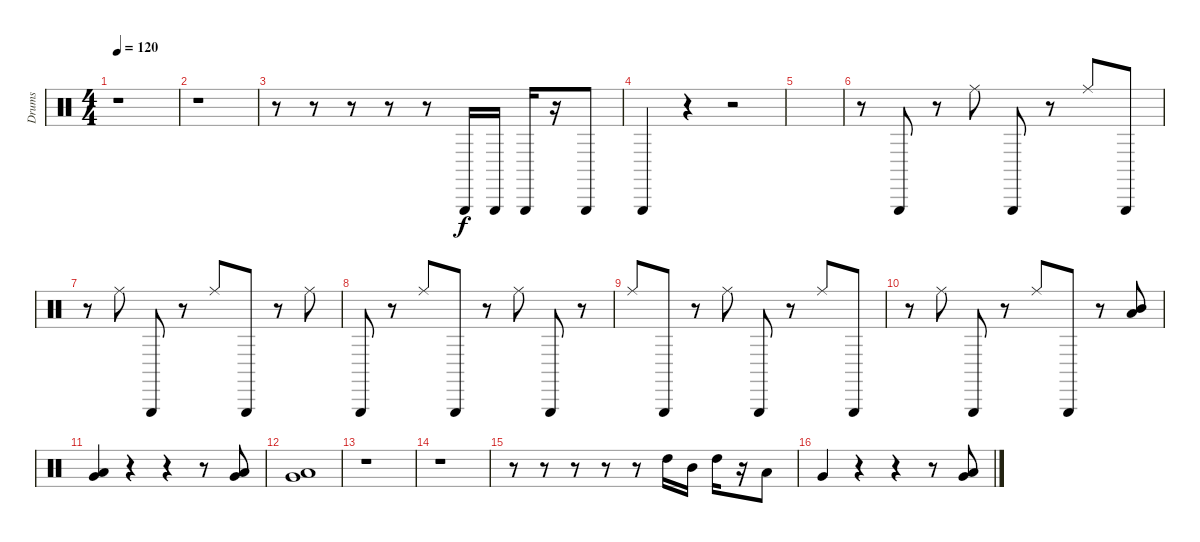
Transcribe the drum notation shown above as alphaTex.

\track ("Drums" "Drums") {instrument percussion}
\staff {score}
\articulation defaults
\ts (4 4)
\tempo 120
\clef neutral
\ks c
r.1{dy f} |
r.1 |
r.8 r.8 r.8 r.8 r.8 "Triangle (hit)".16 "Triangle (hit)".16 "Triangle (hit)".16 r.16 "Triangle (hit)".8 |
"Triangle (hit)".4 r.4 r.2 |
|
r.8 "Triangle (hit)".8 r.8 "Ride (middle)".8 "Triangle (hit)".8 r.8 "Ride (middle)".8 "Triangle (hit)".8 |
r.8 "Ride (middle)".8 "Triangle (hit)".8 r.8 "Ride (middle)".8 "Triangle (hit)".8 r.8 "Ride (middle)".8 |
"Triangle (hit)".8 r.8 "Ride (middle)".8 "Triangle (hit)".8 r.8 "Ride (middle)".8 "Triangle (hit)".8 r.8 |
"Ride (middle)".8 "Triangle (hit)".8 r.8 "Ride (middle)".8 "Triangle (hit)".8 r.8 "Ride (middle)".8 "Triangle (hit)".8 |
r.8 "Ride (middle)".8 "Triangle (hit)".8 r.8 "Ride (middle)".8 "Triangle (hit)".8 r.8 ("Mid Tom (hit)" "Low Tom (hit)").8 |
("Low Tom (hit)" "Very Low Tom (hit)").4 r.4 r.4 r.8 ("Low Tom (hit)" "Very Low Tom (hit)").8 |
("Very Low Tom (hit)" "Low Floor Tom (hit)").1 |
r.1 |
r.1 |
r.8 r.8 r.8 r.8 r.8 "High Tom (hit)".16 "Mid Tom (hit)".16 "High Tom (hit)".16 r.16 "Low Tom (hit)".8 |
"Very Low Tom (hit)".4 r.4 r.4 r.8 ("Low Tom (hit)" "Very Low Tom (hit)").8
